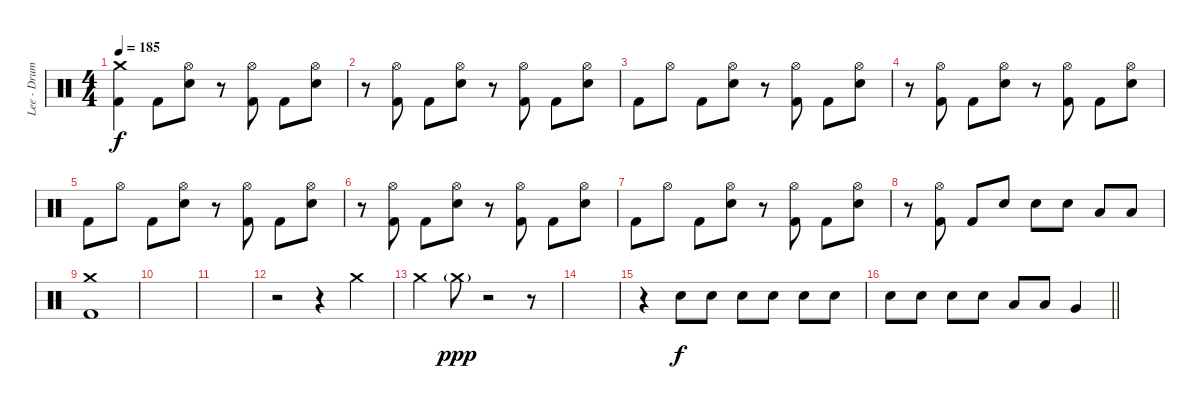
\track ("Lee - Drums" "Lee - Drum") {instrument percussion}
\staff {score}
\articulation defaults
\ts (4 4)
\tempo 185
\clef neutral
\ks c
("Crash medium (hit)" "Kick (hit) 2").4{dy f} "Kick (hit) 2".8 ("Hi-Hat (open)" "Snare (hit) 2").8 r.8 ("Hi-Hat (open)" "Kick (hit) 2").8 "Kick (hit) 2".8 ("Hi-Hat (open)" "Snare (hit) 2").8 |
r.8 ("Hi-Hat (open)" "Kick (hit) 2").8 "Kick (hit) 2".8 ("Hi-Hat (open)" "Snare (hit) 2").8 r.8 ("Hi-Hat (open)" "Kick (hit) 2").8 "Kick (hit) 2".8 ("Hi-Hat (open)" "Snare (hit) 2").8 |
"Kick (hit) 2".8 "Hi-Hat (open)".8 "Kick (hit) 2".8 ("Hi-Hat (open)" "Snare (hit) 2").8 r.8 ("Hi-Hat (open)" "Kick (hit) 2").8 "Kick (hit) 2".8 ("Hi-Hat (open)" "Snare (hit) 2").8 |
r.8 ("Hi-Hat (open)" "Kick (hit) 2").8 "Kick (hit) 2".8 ("Hi-Hat (open)" "Snare (hit) 2").8 r.8 ("Hi-Hat (open)" "Kick (hit) 2").8 "Kick (hit) 2".8 ("Hi-Hat (open)" "Snare (hit) 2").8 |
"Kick (hit) 2".8 "Hi-Hat (open)".8 "Kick (hit) 2".8 ("Hi-Hat (open)" "Snare (hit) 2").8 r.8 ("Hi-Hat (open)" "Kick (hit) 2").8 "Kick (hit) 2".8 ("Hi-Hat (open)" "Snare (hit) 2").8 |
r.8 ("Hi-Hat (open)" "Kick (hit) 2").8 "Kick (hit) 2".8 ("Hi-Hat (open)" "Snare (hit) 2").8 r.8 ("Hi-Hat (open)" "Kick (hit) 2").8 "Kick (hit) 2".8 ("Hi-Hat (open)" "Snare (hit) 2").8 |
"Kick (hit) 2".8 "Hi-Hat (open)".8 "Kick (hit) 2".8 ("Hi-Hat (open)" "Snare (hit) 2").8 r.8 ("Hi-Hat (open)" "Kick (hit) 2").8 "Kick (hit) 2".8 ("Hi-Hat (open)" "Snare (hit) 2").8 |
r.8 ("Hi-Hat (open)" "Kick (hit) 2").8 "Kick (hit) 2".8 "Snare (hit) 2".8 "Snare (hit) 2".8 "Snare (hit) 2".8 "Low Tom (hit)".8 "Low Tom (hit)".8 |
("Crash medium (hit)" "Kick (hit) 2").1 |
|
|
r.2 r.4 "Crash medium (hit)".4 |
"Crash medium (hit)".4 "Crash medium (hit)"{g}.8{dy ppp} r.2 r.8 |
|
r.4 "Snare (hit) 2".8{dy f} "Snare (hit) 2".8 "Snare (hit) 2".8 "Snare (hit) 2".8 "Snare (hit) 2".8 "Snare (hit) 2".8 |
\barLineRight lightlight "Snare (hit) 2".8 "Snare (hit) 2".8 "Snare (hit) 2".8 "Snare (hit) 2".8 "Low Tom (hit)".8 "Low Tom (hit)".8 "Very Low Tom (hit)".4
